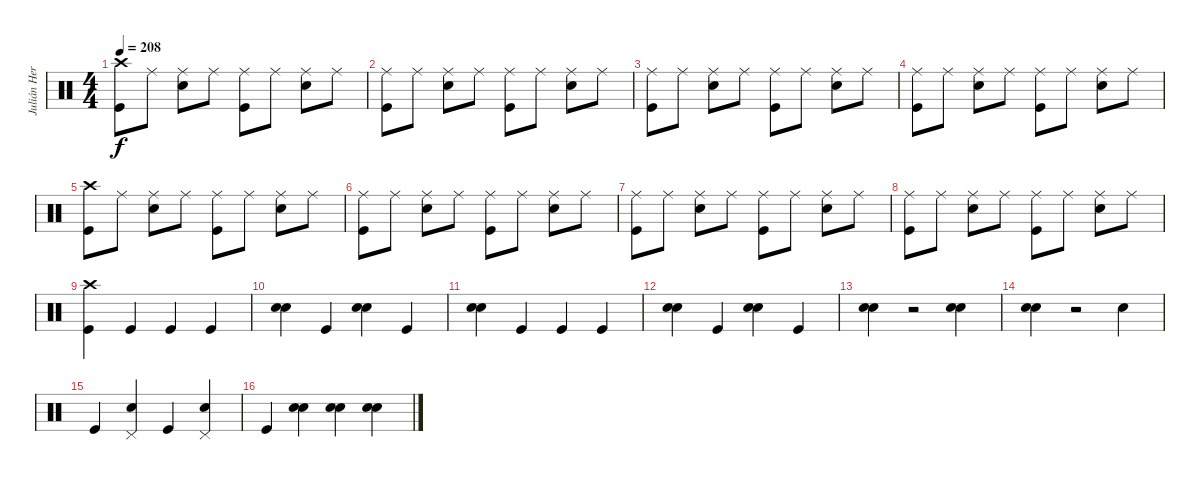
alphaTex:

\track ("Julián Hernandez - Batería" "Julián Her") {instrument percussion}
\staff {score}
\articulation defaults
\ts (4 4)
\tempo 208
\clef neutral
\ks c
("Crash high (hit)" "Kick (hit)").8{dy f} "Ride (middle)".8 ("Ride (middle)" "Electric Snare (hit)").8 "Ride (middle)".8 ("Ride (middle)" "Kick (hit)").8 "Ride (middle)".8 ("Ride (middle)" "Electric Snare (hit)").8 "Ride (middle)".8 |
("Ride (middle)" "Kick (hit)").8 "Ride (middle)".8 ("Ride (middle)" "Electric Snare (hit)").8 "Ride (middle)".8 ("Ride (middle)" "Kick (hit)").8 "Ride (middle)".8 ("Ride (middle)" "Electric Snare (hit)").8 "Ride (middle)".8 |
("Ride (middle)" "Kick (hit)").8 "Ride (middle)".8 ("Ride (middle)" "Electric Snare (hit)").8 "Ride (middle)".8 ("Ride (middle)" "Kick (hit)").8 "Ride (middle)".8 ("Ride (middle)" "Electric Snare (hit)").8 "Ride (middle)".8 |
("Ride (middle)" "Kick (hit)").8 "Ride (middle)".8 ("Ride (middle)" "Electric Snare (hit)").8 "Ride (middle)".8 ("Ride (middle)" "Kick (hit)").8 "Ride (middle)".8 ("Ride (middle)" "Electric Snare (hit)").8 "Ride (middle)".8 |
("Crash high (hit)" "Kick (hit)").8 "Ride (middle)".8 ("Ride (middle)" "Electric Snare (hit)").8 "Ride (middle)".8 ("Ride (middle)" "Kick (hit)").8 "Ride (middle)".8 ("Ride (middle)" "Electric Snare (hit)").8 "Ride (middle)".8 |
("Ride (middle)" "Kick (hit)").8 "Ride (middle)".8 ("Ride (middle)" "Electric Snare (hit)").8 "Ride (middle)".8 ("Ride (middle)" "Kick (hit)").8 "Ride (middle)".8 ("Ride (middle)" "Electric Snare (hit)").8 "Ride (middle)".8 |
("Ride (middle)" "Kick (hit)").8 "Ride (middle)".8 ("Ride (middle)" "Electric Snare (hit)").8 "Ride (middle)".8 ("Ride (middle)" "Kick (hit)").8 "Ride (middle)".8 ("Ride (middle)" "Electric Snare (hit)").8 "Ride (middle)".8 |
("Ride (middle)" "Kick (hit)").8 "Ride (middle)".8 ("Ride (middle)" "Electric Snare (hit)").8 "Ride (middle)".8 ("Ride (middle)" "Kick (hit)").8 "Ride (middle)".8 ("Ride (middle)" "Electric Snare (hit)").8 "Ride (middle)".8 |
("Crash high (hit)" "Kick (hit)").4 "Kick (hit)".4 "Kick (hit)".4 "Kick (hit)".4 |
("Electric Snare (hit)" "Electric Snare (hit)").4 "Kick (hit)".4 ("Electric Snare (hit)" "Electric Snare (hit)").4 "Kick (hit)".4 |
("Electric Snare (hit)" "Electric Snare (hit)").4 "Kick (hit)".4 "Kick (hit)".4 "Kick (hit)".4 |
("Electric Snare (hit)" "Electric Snare (hit)").4 "Kick (hit)".4 ("Electric Snare (hit)" "Electric Snare (hit)").4 "Kick (hit)".4 |
("Electric Snare (hit)" "Electric Snare (hit)").4 r.2 ("Electric Snare (hit)" "Electric Snare (hit)").4 |
("Electric Snare (hit)" "Electric Snare (hit)").4 r.2 "Electric Snare (hit)".4 |
"Kick (hit)".4 ("Electric Snare (hit)" "Pedal Hi-Hat (hit)").4 "Kick (hit)".4 ("Electric Snare (hit)" "Pedal Hi-Hat (hit)").4 |
"Kick (hit)".4 ("Electric Snare (hit)" "Electric Snare (hit)").4 ("Electric Snare (hit)" "Electric Snare (hit)").4 ("Electric Snare (hit)" "Electric Snare (hit)").4
